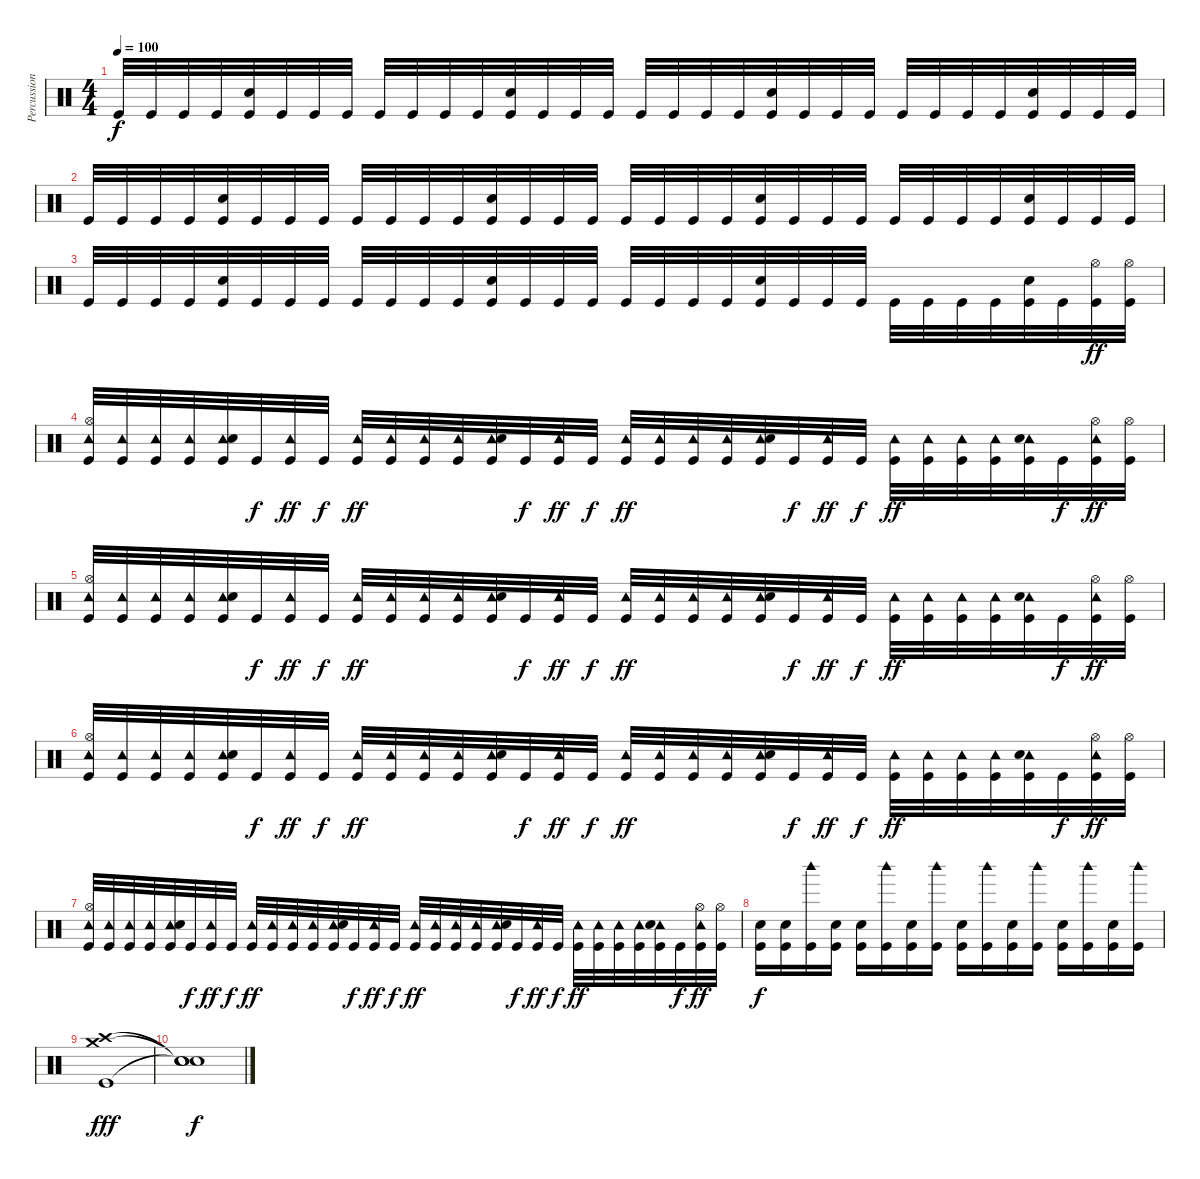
\track ("Percussion" "Percussion") {instrument percussion}
\staff {score}
\articulation defaults
\ts (4 4)
\tempo 100
\clef neutral
\ks c "Kick (hit)".32{dy f} "Kick (hit)".32 "Kick (hit)".32 "Kick (hit)".32
("Snare (hit) 2" "Kick (hit)").32 "Kick (hit)".32 "Kick (hit)".32 "Kick (hit)".32 "Kick (hit)".32 "Kick (hit)".32 "Kick (hit)".32 "Kick (hit)".32 ("Snare (hit) 2" "Kick (hit)").32 "Kick (hit)".32 "Kick (hit)".32 "Kick (hit)".32 "Kick (hit)".32 "Kick (hit)".32 "Kick (hit)".32 "Kick (hit)".32 ("Snare (hit) 2" "Kick (hit)").32 "Kick (hit)".32 "Kick (hit)".32 "Kick (hit)".32 "Kick (hit)".32 "Kick (hit)".32 "Kick (hit)".32 "Kick (hit)".32 ("Snare (hit) 2" "Kick (hit)").32 "Kick (hit)".32 "Kick (hit)".32 "Kick (hit)".32 |
"Kick (hit)".32 "Kick (hit)".32 "Kick (hit)".32 "Kick (hit)".32 ("Snare (hit) 2" "Kick (hit)").32 "Kick (hit)".32 "Kick (hit)".32 "Kick (hit)".32 "Kick (hit)".32 "Kick (hit)".32 "Kick (hit)".32 "Kick (hit)".32 ("Snare (hit) 2" "Kick (hit)").32 "Kick (hit)".32 "Kick (hit)".32 "Kick (hit)".32 "Kick (hit)".32 "Kick (hit)".32 "Kick (hit)".32 "Kick (hit)".32 ("Snare (hit) 2" "Kick (hit)").32 "Kick (hit)".32 "Kick (hit)".32 "Kick (hit)".32 "Kick (hit)".32 "Kick (hit)".32 "Kick (hit)".32 "Kick (hit)".32 ("Snare (hit) 2" "Kick (hit)").32 "Kick (hit)".32 "Kick (hit)".32 "Kick (hit)".32 |
"Kick (hit)".32 "Kick (hit)".32 "Kick (hit)".32 "Kick (hit)".32 ("Snare (hit) 2" "Kick (hit)").32 "Kick (hit)".32 "Kick (hit)".32 "Kick (hit)".32 "Kick (hit)".32 "Kick (hit)".32 "Kick (hit)".32 "Kick (hit)".32 ("Snare (hit) 2" "Kick (hit)").32 "Kick (hit)".32 "Kick (hit)".32 "Kick (hit)".32 "Kick (hit)".32 "Kick (hit)".32 "Kick (hit)".32 "Kick (hit)".32 ("Snare (hit) 2" "Kick (hit)").32 "Kick (hit)".32 "Kick (hit)".32 "Kick (hit)".32 "Kick (hit)".32 "Kick (hit)".32 "Kick (hit)".32 "Kick (hit)".32 ("Snare (hit) 2" "Kick (hit)").32 "Kick (hit)".32 ("Hi-Hat (open)" "Kick (hit)").32{dy ff} ("Hi-Hat (open)" "Kick (hit)").32 |
("Tambourine (hit)" "Hi-Hat (open)" "Kick (hit)").32 ("Tambourine (hit)" "Kick (hit)").32 ("Tambourine (hit)" "Kick (hit)").32 ("Tambourine (hit)" "Kick (hit)").32 ("Tambourine (hit)" "Snare (hit) 2" "Kick (hit)").32 "Kick (hit)".32{dy f} ("Tambourine (hit)" "Kick (hit)").32{dy ff} "Kick (hit)".32{dy f} ("Tambourine (hit)" "Kick (hit)").32{dy ff} ("Tambourine (hit)" "Kick (hit)").32 ("Tambourine (hit)" "Kick (hit)").32 ("Tambourine (hit)" "Kick (hit)").32 ("Tambourine (hit)" "Snare (hit) 2" "Kick (hit)").32 "Kick (hit)".32{dy f} ("Tambourine (hit)" "Kick (hit)").32{dy ff} "Kick (hit)".32{dy f} ("Tambourine (hit)" "Kick (hit)").32{dy ff} ("Tambourine (hit)" "Kick (hit)").32 ("Tambourine (hit)" "Kick (hit)").32 ("Tambourine (hit)" "Kick (hit)").32 ("Tambourine (hit)" "Snare (hit) 2" "Kick (hit)").32 "Kick (hit)".32{dy f} ("Tambourine (hit)" "Kick (hit)").32{dy ff} "Kick (hit)".32{dy f} ("Tambourine (hit)" "Kick (hit)").32{dy ff} ("Tambourine (hit)" "Kick (hit)").32 ("Tambourine (hit)" "Kick (hit)").32 ("Tambourine (hit)" "Kick (hit)").32 ("Tambourine (hit)" "Snare (hit) 2" "Kick (hit)").32 "Kick (hit)".32{dy f} ("Tambourine (hit)" "Hi-Hat (open)" "Kick (hit)").32{dy ff} ("Hi-Hat (open)" "Kick (hit)").32 |
("Tambourine (hit)" "Hi-Hat (open)" "Kick (hit)").32 ("Tambourine (hit)" "Kick (hit)").32 ("Tambourine (hit)" "Kick (hit)").32 ("Tambourine (hit)" "Kick (hit)").32 ("Tambourine (hit)" "Snare (hit) 2" "Kick (hit)").32 "Kick (hit)".32{dy f} ("Tambourine (hit)" "Kick (hit)").32{dy ff} "Kick (hit)".32{dy f} ("Tambourine (hit)" "Kick (hit)").32{dy ff} ("Tambourine (hit)" "Kick (hit)").32 ("Tambourine (hit)" "Kick (hit)").32 ("Tambourine (hit)" "Kick (hit)").32 ("Tambourine (hit)" "Snare (hit) 2" "Kick (hit)").32 "Kick (hit)".32{dy f} ("Tambourine (hit)" "Kick (hit)").32{dy ff} "Kick (hit)".32{dy f} ("Tambourine (hit)" "Kick (hit)").32{dy ff} ("Tambourine (hit)" "Kick (hit)").32 ("Tambourine (hit)" "Kick (hit)").32 ("Tambourine (hit)" "Kick (hit)").32 ("Tambourine (hit)" "Snare (hit) 2" "Kick (hit)").32 "Kick (hit)".32{dy f} ("Tambourine (hit)" "Kick (hit)").32{dy ff} "Kick (hit)".32{dy f} ("Tambourine (hit)" "Kick (hit)").32{dy ff} ("Tambourine (hit)" "Kick (hit)").32 ("Tambourine (hit)" "Kick (hit)").32 ("Tambourine (hit)" "Kick (hit)").32 ("Tambourine (hit)" "Snare (hit) 2" "Kick (hit)").32 "Kick (hit)".32{dy f} ("Tambourine (hit)" "Hi-Hat (open)" "Kick (hit)").32{dy ff} ("Hi-Hat (open)" "Kick (hit)").32 |
("Tambourine (hit)" "Hi-Hat (open)" "Kick (hit)").32 ("Tambourine (hit)" "Kick (hit)").32 ("Tambourine (hit)" "Kick (hit)").32 ("Tambourine (hit)" "Kick (hit)").32 ("Tambourine (hit)" "Snare (hit) 2" "Kick (hit)").32 "Kick (hit)".32{dy f} ("Tambourine (hit)" "Kick (hit)").32{dy ff} "Kick (hit)".32{dy f} ("Tambourine (hit)" "Kick (hit)").32{dy ff} ("Tambourine (hit)" "Kick (hit)").32 ("Tambourine (hit)" "Kick (hit)").32 ("Tambourine (hit)" "Kick (hit)").32 ("Tambourine (hit)" "Snare (hit) 2" "Kick (hit)").32 "Kick (hit)".32{dy f} ("Tambourine (hit)" "Kick (hit)").32{dy ff} "Kick (hit)".32{dy f} ("Tambourine (hit)" "Kick (hit)").32{dy ff} ("Tambourine (hit)" "Kick (hit)").32 ("Tambourine (hit)" "Kick (hit)").32 ("Tambourine (hit)" "Kick (hit)").32 ("Tambourine (hit)" "Snare (hit) 2" "Kick (hit)").32 "Kick (hit)".32{dy f} ("Tambourine (hit)" "Kick (hit)").32{dy ff} "Kick (hit)".32{dy f} ("Tambourine (hit)" "Kick (hit)").32{dy ff} ("Tambourine (hit)" "Kick (hit)").32 ("Tambourine (hit)" "Kick (hit)").32 ("Tambourine (hit)" "Kick (hit)").32 ("Tambourine (hit)" "Snare (hit) 2" "Kick (hit)").32 "Kick (hit)".32{dy f} ("Tambourine (hit)" "Hi-Hat (open)" "Kick (hit)").32{dy ff} ("Hi-Hat (open)" "Kick (hit)").32 |
("Tambourine (hit)" "Hi-Hat (open)" "Kick (hit)").32 ("Tambourine (hit)" "Kick (hit)").32 ("Tambourine (hit)" "Kick (hit)").32 ("Tambourine (hit)" "Kick (hit)").32 ("Tambourine (hit)" "Snare (hit) 2" "Kick (hit)").32 "Kick (hit)".32{dy f} ("Tambourine (hit)" "Kick (hit)").32{dy ff} "Kick (hit)".32{dy f} ("Tambourine (hit)" "Kick (hit)").32{dy ff} ("Tambourine (hit)" "Kick (hit)").32 ("Tambourine (hit)" "Kick (hit)").32 ("Tambourine (hit)" "Kick (hit)").32 ("Tambourine (hit)" "Snare (hit) 2" "Kick (hit)").32 "Kick (hit)".32{dy f} ("Tambourine (hit)" "Kick (hit)").32{dy ff} "Kick (hit)".32{dy f} ("Tambourine (hit)" "Kick (hit)").32{dy ff} ("Tambourine (hit)" "Kick (hit)").32 ("Tambourine (hit)" "Kick (hit)").32 ("Tambourine (hit)" "Kick (hit)").32 ("Tambourine (hit)" "Snare (hit) 2" "Kick (hit)").32 "Kick (hit)".32{dy f} ("Tambourine (hit)" "Kick (hit)").32{dy ff} "Kick (hit)".32{dy f} ("Tambourine (hit)" "Kick (hit)").32{dy ff} ("Tambourine (hit)" "Kick (hit)").32 ("Tambourine (hit)" "Kick (hit)").32 ("Tambourine (hit)" "Kick (hit)").32 ("Tambourine (hit)" "Snare (hit) 2" "Kick (hit)").32 "Kick (hit)".32{dy f} ("Tambourine (hit)" "Hi-Hat (open)" "Kick (hit)").32{dy ff} ("Hi-Hat (open)" "Kick (hit)").32 |
("Kick (hit)" "Snare (hit) 2").16{dy f} ("Kick (hit)" "Snare (hit) 2").16 ("Kick (hit)" "Woodblock high (hit)").16 ("Kick (hit)" "Snare (hit) 2").16 ("Kick (hit)" "Snare (hit) 2").16 ("Kick (hit)" "Woodblock high (hit)").16 ("Kick (hit)" "Snare (hit) 2").16 ("Kick (hit)" "Woodblock high (hit)").16 ("Kick (hit)" "Snare (hit) 2").16 ("Kick (hit)" "Woodblock high (hit)").16 ("Kick (hit)" "Snare (hit) 2").16 ("Kick (hit)" "Woodblock high (hit)").16 ("Kick (hit)" "Snare (hit) 2").16 ("Kick (hit)" "Woodblock high (hit)").16 ("Kick (hit)" "Snare (hit) 2").16 ("Kick (hit)" "Woodblock high (hit)").16 |
("Kick (hit)" "Crash medium (hit)" "Crash high (hit)").1{dy fff} |
("Snare (hit)"{t} "Snare (hit)"{t} "Snare (hit)"{t}).1{dy f}
